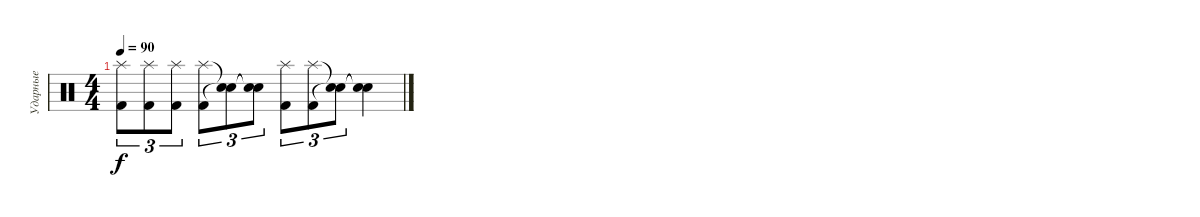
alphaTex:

\track ("Ударные" "Ударные") {instrument percussion}
\staff {score}
\articulation defaults
\ts (4 4)
\tempo 90
\clef neutral
\ks c
("Splash (hit)" "Kick (hit) 2").8{tu (3 2) dy f} ("Splash (hit)" "Kick (hit) 2").8{tu (3 2)} ("Splash (hit)" "Kick (hit) 2").8{tu (3 2)} ("Splash (hit)" "Kick (hit) 2").8{tu (3 2)} ("Snare (hit)"{t} "Snare (hit)"{t}).8{tu (3 2)} ("Snare (hit)"{t} "Snare (hit)"{t}).8{tu (3 2)} ("Splash (hit)" "Kick (hit) 2").8{tu (3 2)} ("Splash (hit)" "Kick (hit) 2").8{tu (3 2)} ("Snare (hit)"{t} "Snare (hit)"{t}).8{tu (3 2)} ("Snare (hit)"{t} "Snare (hit)"{t}).4
